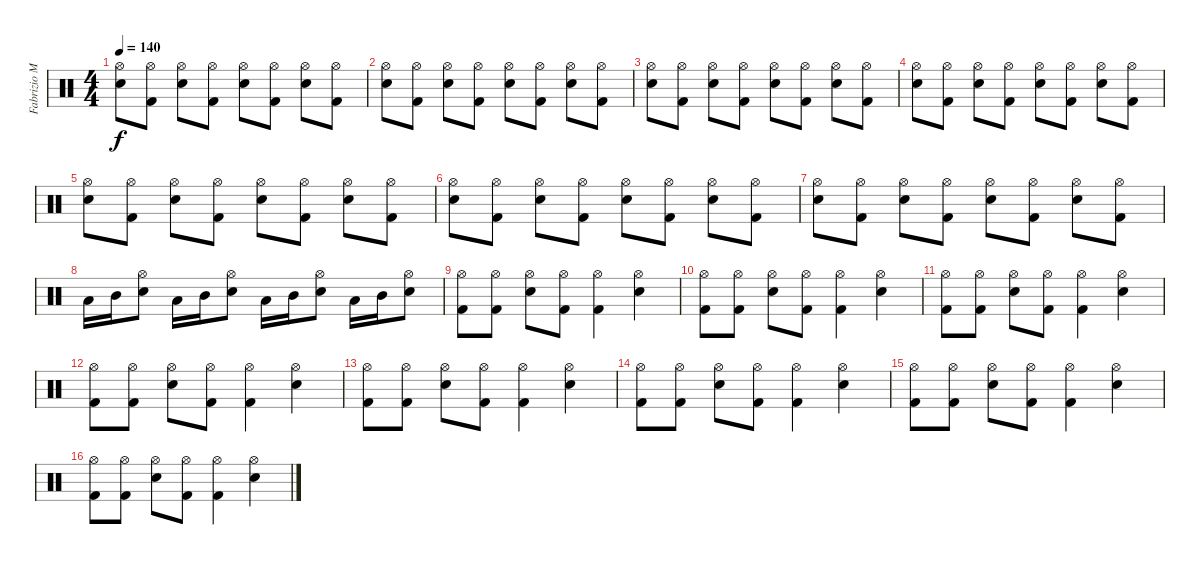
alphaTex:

\track ("Fabrizio Moretti" "Fabrizio M") {instrument percussion}
\staff {score}
\articulation defaults
\ts (4 4)
\tempo 140
\clef neutral
\ks c
("Electric Snare (hit)" "Hi-Hat (open)").8{dy f} ("Kick (hit) 2" "Hi-Hat (open)").8 ("Electric Snare (hit)" "Hi-Hat (open)").8 ("Kick (hit) 2" "Hi-Hat (open)").8 ("Electric Snare (hit)" "Hi-Hat (open)").8 ("Kick (hit) 2" "Hi-Hat (open)").8 ("Electric Snare (hit)" "Hi-Hat (open)").8 ("Kick (hit) 2" "Hi-Hat (open)").8 |
("Electric Snare (hit)" "Hi-Hat (open)").8 ("Kick (hit) 2" "Hi-Hat (open)").8 ("Electric Snare (hit)" "Hi-Hat (open)").8 ("Kick (hit) 2" "Hi-Hat (open)").8 ("Electric Snare (hit)" "Hi-Hat (open)").8 ("Kick (hit) 2" "Hi-Hat (open)").8 ("Electric Snare (hit)" "Hi-Hat (open)").8 ("Kick (hit) 2" "Hi-Hat (open)").8 |
("Electric Snare (hit)" "Hi-Hat (open)").8 ("Kick (hit) 2" "Hi-Hat (open)").8 ("Electric Snare (hit)" "Hi-Hat (open)").8 ("Kick (hit) 2" "Hi-Hat (open)").8 ("Electric Snare (hit)" "Hi-Hat (open)").8 ("Kick (hit) 2" "Hi-Hat (open)").8 ("Electric Snare (hit)" "Hi-Hat (open)").8 ("Kick (hit) 2" "Hi-Hat (open)").8 |
("Electric Snare (hit)" "Hi-Hat (open)").8 ("Kick (hit) 2" "Hi-Hat (open)").8 ("Electric Snare (hit)" "Hi-Hat (open)").8 ("Kick (hit) 2" "Hi-Hat (open)").8 ("Electric Snare (hit)" "Hi-Hat (open)").8 ("Kick (hit) 2" "Hi-Hat (open)").8 ("Electric Snare (hit)" "Hi-Hat (open)").8 ("Kick (hit) 2" "Hi-Hat (open)").8 |
("Electric Snare (hit)" "Hi-Hat (open)").8 ("Kick (hit) 2" "Hi-Hat (open)").8 ("Electric Snare (hit)" "Hi-Hat (open)").8 ("Kick (hit) 2" "Hi-Hat (open)").8 ("Electric Snare (hit)" "Hi-Hat (open)").8 ("Kick (hit) 2" "Hi-Hat (open)").8 ("Electric Snare (hit)" "Hi-Hat (open)").8 ("Kick (hit) 2" "Hi-Hat (open)").8 |
("Electric Snare (hit)" "Hi-Hat (open)").8 ("Kick (hit) 2" "Hi-Hat (open)").8 ("Electric Snare (hit)" "Hi-Hat (open)").8 ("Kick (hit) 2" "Hi-Hat (open)").8 ("Electric Snare (hit)" "Hi-Hat (open)").8 ("Kick (hit) 2" "Hi-Hat (open)").8 ("Electric Snare (hit)" "Hi-Hat (open)").8 ("Kick (hit) 2" "Hi-Hat (open)").8 |
("Electric Snare (hit)" "Hi-Hat (open)").8 ("Kick (hit) 2" "Hi-Hat (open)").8 ("Electric Snare (hit)" "Hi-Hat (open)").8 ("Kick (hit) 2" "Hi-Hat (open)").8 ("Electric Snare (hit)" "Hi-Hat (open)").8 ("Kick (hit) 2" "Hi-Hat (open)").8 ("Electric Snare (hit)" "Hi-Hat (open)").8 ("Kick (hit) 2" "Hi-Hat (open)").8 |
"Low Tom (hit)".16 "Mid Tom (hit)".16 ("Electric Snare (hit)" "Hi-Hat (open)").8 "Low Tom (hit)".16 "Mid Tom (hit)".16 ("Electric Snare (hit)" "Hi-Hat (open)").8 "Low Tom (hit)".16 "Mid Tom (hit)".16 ("Electric Snare (hit)" "Hi-Hat (open)").8 "Low Tom (hit)".16 "Mid Tom (hit)".16 ("Electric Snare (hit)" "Hi-Hat (open)").8 |
("Kick (hit) 2" "Hi-Hat (open)").8 ("Kick (hit) 2" "Hi-Hat (open)").8 ("Electric Snare (hit)" "Hi-Hat (open)").8 ("Kick (hit) 2" "Hi-Hat (open)").8 ("Kick (hit) 2" "Hi-Hat (open)").4 ("Electric Snare (hit)" "Hi-Hat (open)").4 |
("Kick (hit) 2" "Hi-Hat (open)").8 ("Kick (hit) 2" "Hi-Hat (open)").8 ("Electric Snare (hit)" "Hi-Hat (open)").8 ("Kick (hit) 2" "Hi-Hat (open)").8 ("Kick (hit) 2" "Hi-Hat (open)").4 ("Electric Snare (hit)" "Hi-Hat (open)").4 |
("Kick (hit) 2" "Hi-Hat (open)").8 ("Kick (hit) 2" "Hi-Hat (open)").8 ("Electric Snare (hit)" "Hi-Hat (open)").8 ("Kick (hit) 2" "Hi-Hat (open)").8 ("Kick (hit) 2" "Hi-Hat (open)").4 ("Electric Snare (hit)" "Hi-Hat (open)").4 |
("Kick (hit) 2" "Hi-Hat (open)").8 ("Kick (hit) 2" "Hi-Hat (open)").8 ("Electric Snare (hit)" "Hi-Hat (open)").8 ("Kick (hit) 2" "Hi-Hat (open)").8 ("Kick (hit) 2" "Hi-Hat (open)").4 ("Electric Snare (hit)" "Hi-Hat (open)").4 |
("Kick (hit) 2" "Hi-Hat (open)").8 ("Kick (hit) 2" "Hi-Hat (open)").8 ("Electric Snare (hit)" "Hi-Hat (open)").8 ("Kick (hit) 2" "Hi-Hat (open)").8 ("Kick (hit) 2" "Hi-Hat (open)").4 ("Electric Snare (hit)" "Hi-Hat (open)").4 |
("Kick (hit) 2" "Hi-Hat (open)").8 ("Kick (hit) 2" "Hi-Hat (open)").8 ("Electric Snare (hit)" "Hi-Hat (open)").8 ("Kick (hit) 2" "Hi-Hat (open)").8 ("Kick (hit) 2" "Hi-Hat (open)").4 ("Electric Snare (hit)" "Hi-Hat (open)").4 |
("Kick (hit) 2" "Hi-Hat (open)").8 ("Kick (hit) 2" "Hi-Hat (open)").8 ("Electric Snare (hit)" "Hi-Hat (open)").8 ("Kick (hit) 2" "Hi-Hat (open)").8 ("Kick (hit) 2" "Hi-Hat (open)").4 ("Electric Snare (hit)" "Hi-Hat (open)").4 |
("Kick (hit) 2" "Hi-Hat (open)").8 ("Kick (hit) 2" "Hi-Hat (open)").8 ("Electric Snare (hit)" "Hi-Hat (open)").8 ("Kick (hit) 2" "Hi-Hat (open)").8 ("Kick (hit) 2" "Hi-Hat (open)").4 ("Electric Snare (hit)" "Hi-Hat (open)").4
